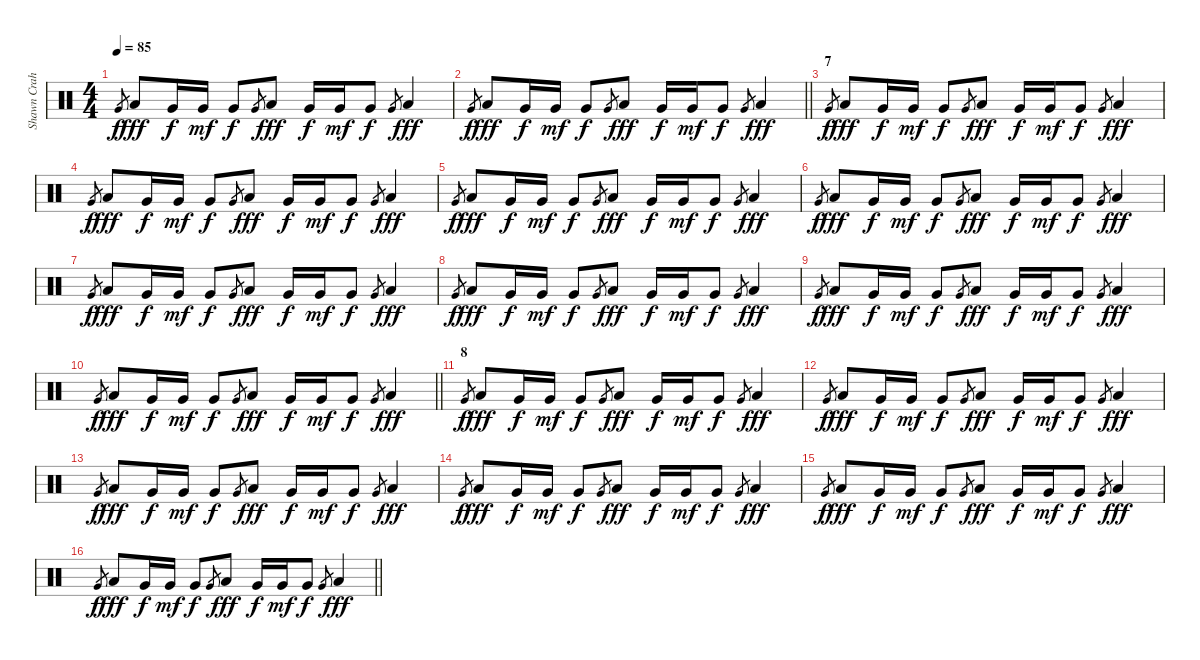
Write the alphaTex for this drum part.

\track ("Shawn Crahan" "Shawn Crah") {instrument percussion}
\staff {score}
\articulation defaults
\ts (4 4)
\tempo 85
\clef neutral
\ks c "Very Low Tom (hit)".8{gr dy f} "Low Tom (hit)".8{dy fff} "Very Low Tom (hit)".16{dy f} "Very Low Tom (hit)".16{dy mf} "Very Low Tom (hit)".8{dy f} "Very Low Tom (hit)".8{gr} "Low Tom (hit)".8{dy fff} "Very Low Tom (hit)".16{dy f} "Very Low Tom (hit)".16{dy mf} "Very Low Tom (hit)".8{dy f} "Very Low Tom (hit)".8{gr} "Low Tom (hit)".4{dy fff}
|
\barLineRight lightlight "Very Low Tom (hit)".8{gr dy f} "Low Tom (hit)".8{dy fff} "Very Low Tom (hit)".16{dy f} "Very Low Tom (hit)".16{dy mf} "Very Low Tom (hit)".8{dy f} "Very Low Tom (hit)".8{gr} "Low Tom (hit)".8{dy fff} "Very Low Tom (hit)".16{dy f} "Very Low Tom (hit)".16{dy mf} "Very Low Tom (hit)".8{dy f} "Very Low Tom (hit)".8{gr} "Low Tom (hit)".4{dy fff}
|
\section ("" "7")
"Very Low Tom (hit)".8{gr dy f} "Low Tom (hit)".8{dy fff} "Very Low Tom (hit)".16{dy f} "Very Low Tom (hit)".16{dy mf} "Very Low Tom (hit)".8{dy f} "Very Low Tom (hit)".8{gr} "Low Tom (hit)".8{dy fff} "Very Low Tom (hit)".16{dy f} "Very Low Tom (hit)".16{dy mf} "Very Low Tom (hit)".8{dy f} "Very Low Tom (hit)".8{gr} "Low Tom (hit)".4{dy fff} |
"Very Low Tom (hit)".8{gr dy f} "Low Tom (hit)".8{dy fff} "Very Low Tom (hit)".16{dy f} "Very Low Tom (hit)".16{dy mf} "Very Low Tom (hit)".8{dy f} "Very Low Tom (hit)".8{gr} "Low Tom (hit)".8{dy fff} "Very Low Tom (hit)".16{dy f} "Very Low Tom (hit)".16{dy mf} "Very Low Tom (hit)".8{dy f} "Very Low Tom (hit)".8{gr} "Low Tom (hit)".4{dy fff} |
"Very Low Tom (hit)".8{gr dy f} "Low Tom (hit)".8{dy fff} "Very Low Tom (hit)".16{dy f} "Very Low Tom (hit)".16{dy mf} "Very Low Tom (hit)".8{dy f} "Very Low Tom (hit)".8{gr} "Low Tom (hit)".8{dy fff} "Very Low Tom (hit)".16{dy f} "Very Low Tom (hit)".16{dy mf} "Very Low Tom (hit)".8{dy f} "Very Low Tom (hit)".8{gr} "Low Tom (hit)".4{dy fff} |
"Very Low Tom (hit)".8{gr dy f} "Low Tom (hit)".8{dy fff} "Very Low Tom (hit)".16{dy f} "Very Low Tom (hit)".16{dy mf} "Very Low Tom (hit)".8{dy f} "Very Low Tom (hit)".8{gr} "Low Tom (hit)".8{dy fff} "Very Low Tom (hit)".16{dy f} "Very Low Tom (hit)".16{dy mf} "Very Low Tom (hit)".8{dy f} "Very Low Tom (hit)".8{gr} "Low Tom (hit)".4{dy fff} |
"Very Low Tom (hit)".8{gr dy f} "Low Tom (hit)".8{dy fff} "Very Low Tom (hit)".16{dy f} "Very Low Tom (hit)".16{dy mf} "Very Low Tom (hit)".8{dy f} "Very Low Tom (hit)".8{gr} "Low Tom (hit)".8{dy fff} "Very Low Tom (hit)".16{dy f} "Very Low Tom (hit)".16{dy mf} "Very Low Tom (hit)".8{dy f} "Very Low Tom (hit)".8{gr} "Low Tom (hit)".4{dy fff} |
"Very Low Tom (hit)".8{gr dy f} "Low Tom (hit)".8{dy fff} "Very Low Tom (hit)".16{dy f} "Very Low Tom (hit)".16{dy mf} "Very Low Tom (hit)".8{dy f} "Very Low Tom (hit)".8{gr} "Low Tom (hit)".8{dy fff} "Very Low Tom (hit)".16{dy f} "Very Low Tom (hit)".16{dy mf} "Very Low Tom (hit)".8{dy f} "Very Low Tom (hit)".8{gr} "Low Tom (hit)".4{dy fff} |
"Very Low Tom (hit)".8{gr dy f} "Low Tom (hit)".8{dy fff} "Very Low Tom (hit)".16{dy f} "Very Low Tom (hit)".16{dy mf} "Very Low Tom (hit)".8{dy f} "Very Low Tom (hit)".8{gr} "Low Tom (hit)".8{dy fff} "Very Low Tom (hit)".16{dy f} "Very Low Tom (hit)".16{dy mf} "Very Low Tom (hit)".8{dy f} "Very Low Tom (hit)".8{gr} "Low Tom (hit)".4{dy fff} |
\barLineRight lightlight "Very Low Tom (hit)".8{gr dy f} "Low Tom (hit)".8{dy fff} "Very Low Tom (hit)".16{dy f} "Very Low Tom (hit)".16{dy mf} "Very Low Tom (hit)".8{dy f} "Very Low Tom (hit)".8{gr} "Low Tom (hit)".8{dy fff} "Very Low Tom (hit)".16{dy f} "Very Low Tom (hit)".16{dy mf} "Very Low Tom (hit)".8{dy f} "Very Low Tom (hit)".8{gr} "Low Tom (hit)".4{dy fff}
|
\section ("" "8")
"Very Low Tom (hit)".8{gr dy f} "Low Tom (hit)".8{dy fff} "Very Low Tom (hit)".16{dy f} "Very Low Tom (hit)".16{dy mf} "Very Low Tom (hit)".8{dy f} "Very Low Tom (hit)".8{gr} "Low Tom (hit)".8{dy fff} "Very Low Tom (hit)".16{dy f} "Very Low Tom (hit)".16{dy mf} "Very Low Tom (hit)".8{dy f} "Very Low Tom (hit)".8{gr} "Low Tom (hit)".4{dy fff} |
"Very Low Tom (hit)".8{gr dy f} "Low Tom (hit)".8{dy fff} "Very Low Tom (hit)".16{dy f} "Very Low Tom (hit)".16{dy mf} "Very Low Tom (hit)".8{dy f} "Very Low Tom (hit)".8{gr} "Low Tom (hit)".8{dy fff} "Very Low Tom (hit)".16{dy f} "Very Low Tom (hit)".16{dy mf} "Very Low Tom (hit)".8{dy f} "Very Low Tom (hit)".8{gr} "Low Tom (hit)".4{dy fff} |
"Very Low Tom (hit)".8{gr dy f} "Low Tom (hit)".8{dy fff} "Very Low Tom (hit)".16{dy f} "Very Low Tom (hit)".16{dy mf} "Very Low Tom (hit)".8{dy f} "Very Low Tom (hit)".8{gr} "Low Tom (hit)".8{dy fff} "Very Low Tom (hit)".16{dy f} "Very Low Tom (hit)".16{dy mf} "Very Low Tom (hit)".8{dy f} "Very Low Tom (hit)".8{gr} "Low Tom (hit)".4{dy fff} |
"Very Low Tom (hit)".8{gr dy f} "Low Tom (hit)".8{dy fff} "Very Low Tom (hit)".16{dy f} "Very Low Tom (hit)".16{dy mf} "Very Low Tom (hit)".8{dy f} "Very Low Tom (hit)".8{gr} "Low Tom (hit)".8{dy fff} "Very Low Tom (hit)".16{dy f} "Very Low Tom (hit)".16{dy mf} "Very Low Tom (hit)".8{dy f} "Very Low Tom (hit)".8{gr} "Low Tom (hit)".4{dy fff} |
"Very Low Tom (hit)".8{gr dy f} "Low Tom (hit)".8{dy fff} "Very Low Tom (hit)".16{dy f} "Very Low Tom (hit)".16{dy mf} "Very Low Tom (hit)".8{dy f} "Very Low Tom (hit)".8{gr} "Low Tom (hit)".8{dy fff} "Very Low Tom (hit)".16{dy f} "Very Low Tom (hit)".16{dy mf} "Very Low Tom (hit)".8{dy f} "Very Low Tom (hit)".8{gr} "Low Tom (hit)".4{dy fff} |
\barLineRight lightlight "Very Low Tom (hit)".8{gr dy f} "Low Tom (hit)".8{dy fff} "Very Low Tom (hit)".16{dy f} "Very Low Tom (hit)".16{dy mf} "Very Low Tom (hit)".8{dy f} "Very Low Tom (hit)".8{gr} "Low Tom (hit)".8{dy fff} "Very Low Tom (hit)".16{dy f} "Very Low Tom (hit)".16{dy mf} "Very Low Tom (hit)".8{dy f} "Very Low Tom (hit)".8{gr} "Low Tom (hit)".4{dy fff}
